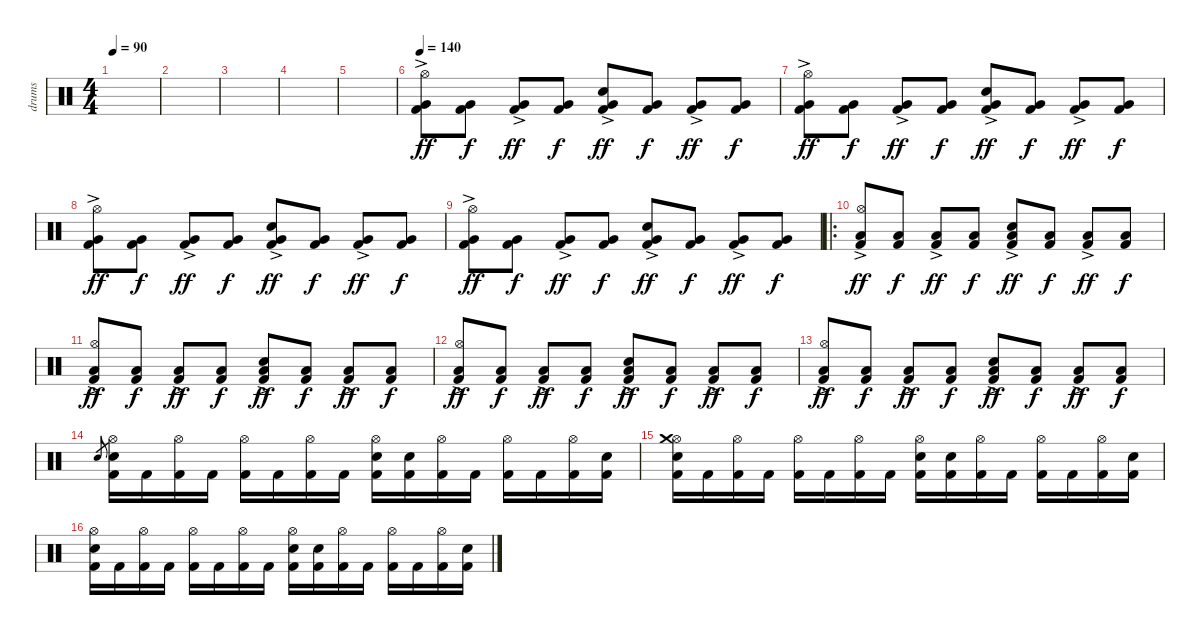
\track ("drums" "drums") {instrument percussion}
\staff {score}
\articulation defaults
\ts (4 4)
\tempo 90
\clef neutral
\ks c
|
|
|
|
|
\tempo 140
("Kick (hit) 2" "Very Low Tom (hit)"{ac} "Hi-Hat (open)").8{dy ff} ("Kick (hit) 2" "Very Low Tom (hit)").8{dy f} ("Kick (hit) 2" "Very Low Tom (hit)"{ac}).8{dy ff} ("Kick (hit) 2" "Very Low Tom (hit)").8{dy f} ("Kick (hit) 2" "Electric Snare (hit)" "Very Low Tom (hit)"{ac}).8{dy ff} ("Kick (hit) 2" "Very Low Tom (hit)").8{dy f} ("Kick (hit) 2" "Very Low Tom (hit)"{ac}).8{dy ff} ("Kick (hit) 2" "Very Low Tom (hit)").8{dy f} |
("Kick (hit) 2" "Very Low Tom (hit)"{ac} "Hi-Hat (open)").8{dy ff} ("Kick (hit) 2" "Very Low Tom (hit)").8{dy f} ("Kick (hit) 2" "Very Low Tom (hit)"{ac}).8{dy ff} ("Kick (hit) 2" "Very Low Tom (hit)").8{dy f} ("Kick (hit) 2" "Electric Snare (hit)" "Very Low Tom (hit)"{ac}).8{dy ff} ("Kick (hit) 2" "Very Low Tom (hit)").8{dy f} ("Kick (hit) 2" "Very Low Tom (hit)"{ac}).8{dy ff} ("Kick (hit) 2" "Very Low Tom (hit)").8{dy f} |
("Kick (hit) 2" "Very Low Tom (hit)"{ac} "Hi-Hat (open)").8{dy ff} ("Kick (hit) 2" "Very Low Tom (hit)").8{dy f} ("Kick (hit) 2" "Very Low Tom (hit)"{ac}).8{dy ff} ("Kick (hit) 2" "Very Low Tom (hit)").8{dy f} ("Kick (hit) 2" "Electric Snare (hit)" "Very Low Tom (hit)"{ac}).8{dy ff} ("Kick (hit) 2" "Very Low Tom (hit)").8{dy f} ("Kick (hit) 2" "Very Low Tom (hit)"{ac}).8{dy ff} ("Kick (hit) 2" "Very Low Tom (hit)").8{dy f} |
("Kick (hit) 2" "Very Low Tom (hit)"{ac} "Hi-Hat (open)").8{dy ff} ("Kick (hit) 2" "Very Low Tom (hit)").8{dy f} ("Kick (hit) 2" "Very Low Tom (hit)"{ac}).8{dy ff} ("Kick (hit) 2" "Very Low Tom (hit)").8{dy f} ("Kick (hit) 2" "Electric Snare (hit)" "Very Low Tom (hit)"{ac}).8{dy ff} ("Kick (hit) 2" "Very Low Tom (hit)").8{dy f} ("Kick (hit) 2" "Very Low Tom (hit)"{ac}).8{dy ff} ("Kick (hit) 2" "Very Low Tom (hit)").8{dy f} |
\ro
("Kick (hit) 2" "Low Floor Tom (hit)"{ac} "Hi-Hat (open)").8{dy ff} ("Kick (hit) 2" "Low Floor Tom (hit)").8{dy f} ("Kick (hit) 2" "Low Floor Tom (hit)"{ac}).8{dy ff} ("Kick (hit) 2" "Low Floor Tom (hit)").8{dy f} ("Kick (hit) 2" "Electric Snare (hit)" "Low Floor Tom (hit)"{ac}).8{dy ff} ("Kick (hit) 2" "Low Floor Tom (hit)").8{dy f} ("Kick (hit) 2" "Low Floor Tom (hit)"{ac}).8{dy ff} ("Kick (hit) 2" "Low Floor Tom (hit)").8{dy f} |
("Kick (hit) 2" "Low Floor Tom (hit)"{ac} "Hi-Hat (open)").8{dy ff} ("Kick (hit) 2" "Low Floor Tom (hit)").8{dy f} ("Kick (hit) 2" "Low Floor Tom (hit)"{ac}).8{dy ff} ("Kick (hit) 2" "Low Floor Tom (hit)").8{dy f} ("Kick (hit) 2" "Electric Snare (hit)" "Low Floor Tom (hit)"{ac}).8{dy ff} ("Kick (hit) 2" "Low Floor Tom (hit)").8{dy f} ("Kick (hit) 2" "Low Floor Tom (hit)"{ac}).8{dy ff} ("Kick (hit) 2" "Low Floor Tom (hit)").8{dy f} |
("Kick (hit) 2" "Low Floor Tom (hit)"{ac} "Hi-Hat (open)").8{dy ff} ("Kick (hit) 2" "Low Floor Tom (hit)").8{dy f} ("Kick (hit) 2" "Low Floor Tom (hit)"{ac}).8{dy ff} ("Kick (hit) 2" "Low Floor Tom (hit)").8{dy f} ("Kick (hit) 2" "Electric Snare (hit)" "Low Floor Tom (hit)"{ac}).8{dy ff} ("Kick (hit) 2" "Low Floor Tom (hit)").8{dy f} ("Kick (hit) 2" "Low Floor Tom (hit)"{ac}).8{dy ff} ("Kick (hit) 2" "Low Floor Tom (hit)").8{dy f} |
("Kick (hit) 2" "Low Floor Tom (hit)"{ac} "Hi-Hat (open)").8{dy ff} ("Kick (hit) 2" "Low Floor Tom (hit)").8{dy f} ("Kick (hit) 2" "Low Floor Tom (hit)"{ac}).8{dy ff} ("Kick (hit) 2" "Low Floor Tom (hit)").8{dy f} ("Kick (hit) 2" "Electric Snare (hit)" "Low Floor Tom (hit)"{ac}).8{dy ff} ("Kick (hit) 2" "Low Floor Tom (hit)").8{dy f} ("Kick (hit) 2" "Low Floor Tom (hit)"{ac}).8{dy ff} ("Kick (hit) 2" "Low Floor Tom (hit)").8{dy f} |
"Snare (hit) 2".8{gr} ("Kick (hit) 2" "Hi-Hat (open)" "Snare (hit) 2").16 "Kick (hit) 2".16 ("Kick (hit) 2" "Hi-Hat (open)").16 "Kick (hit) 2".16 ("Kick (hit) 2" "Hi-Hat (open)").16 "Kick (hit) 2".16 ("Kick (hit) 2" "Hi-Hat (open)").16 "Kick (hit) 2".16 ("Kick (hit) 2" "Hi-Hat (open)" "Snare (hit) 2").16 ("Kick (hit) 2" "Snare (hit) 2").16 ("Kick (hit) 2" "Hi-Hat (open)").16 "Kick (hit) 2".16 ("Kick (hit) 2" "Hi-Hat (open)").16 "Kick (hit) 2".16 ("Kick (hit) 2" "Hi-Hat (open)").16 ("Kick (hit) 2" "Snare (hit) 2").16 |
("Kick (hit) 2" "Hi-Hat (open)" "Snare (hit) 2" "Crash medium (hit)").16 "Kick (hit) 2".16 ("Kick (hit) 2" "Hi-Hat (open)").16 "Kick (hit) 2".16 ("Kick (hit) 2" "Hi-Hat (open)").16 "Kick (hit) 2".16 ("Kick (hit) 2" "Hi-Hat (open)").16 "Kick (hit) 2".16 ("Kick (hit) 2" "Hi-Hat (open)" "Snare (hit) 2").16 ("Kick (hit) 2" "Snare (hit) 2").16 ("Kick (hit) 2" "Hi-Hat (open)").16 "Kick (hit) 2".16 ("Kick (hit) 2" "Hi-Hat (open)").16 "Kick (hit) 2".16 ("Kick (hit) 2" "Hi-Hat (open)").16 ("Kick (hit) 2" "Snare (hit) 2").16 |
("Kick (hit) 2" "Hi-Hat (open)" "Snare (hit) 2").16 "Kick (hit) 2".16 ("Kick (hit) 2" "Hi-Hat (open)").16 "Kick (hit) 2".16 ("Kick (hit) 2" "Hi-Hat (open)").16 "Kick (hit) 2".16 ("Kick (hit) 2" "Hi-Hat (open)").16 "Kick (hit) 2".16 ("Kick (hit) 2" "Hi-Hat (open)" "Snare (hit) 2").16 ("Kick (hit) 2" "Snare (hit) 2").16 ("Kick (hit) 2" "Hi-Hat (open)").16 "Kick (hit) 2".16 ("Kick (hit) 2" "Hi-Hat (open)").16 "Kick (hit) 2".16 ("Kick (hit) 2" "Hi-Hat (open)").16 ("Kick (hit) 2" "Snare (hit) 2").16
